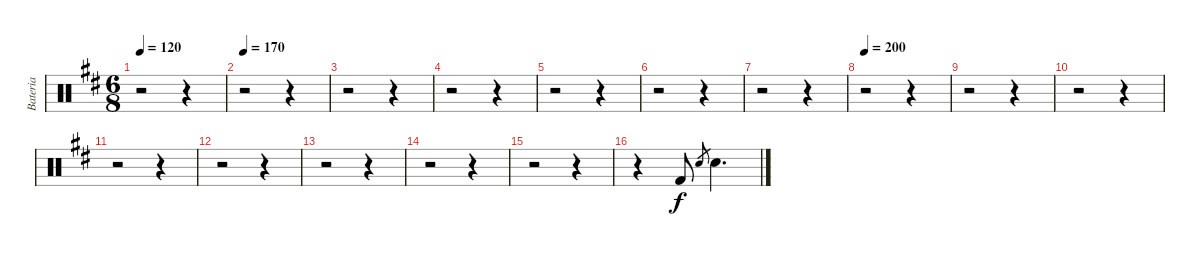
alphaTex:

\track ("Bateria" "Bateria") {instrument percussion}
\staff {score}
\articulation defaults
\ts (6 8)
\tempo 120
\clef neutral
\ks bminor
r.2{dy f} r.4 |
\tempo 170
r.2 r.4 |
r.2 r.4 |
r.2 r.4 |
r.2 r.4 |
r.2 r.4 |
r.2 r.4 |
\tempo 200
r.2 r.4 |
r.2 r.4 |
r.2 r.4 |
r.2 r.4 |
r.2 r.4 |
r.2 r.4 |
r.2 r.4 |
r.2 r.4 |
r.4 "Kick (hit) 2".8 "Electric Snare (hit)".8{gr} "Electric Snare (hit)".4{d}
